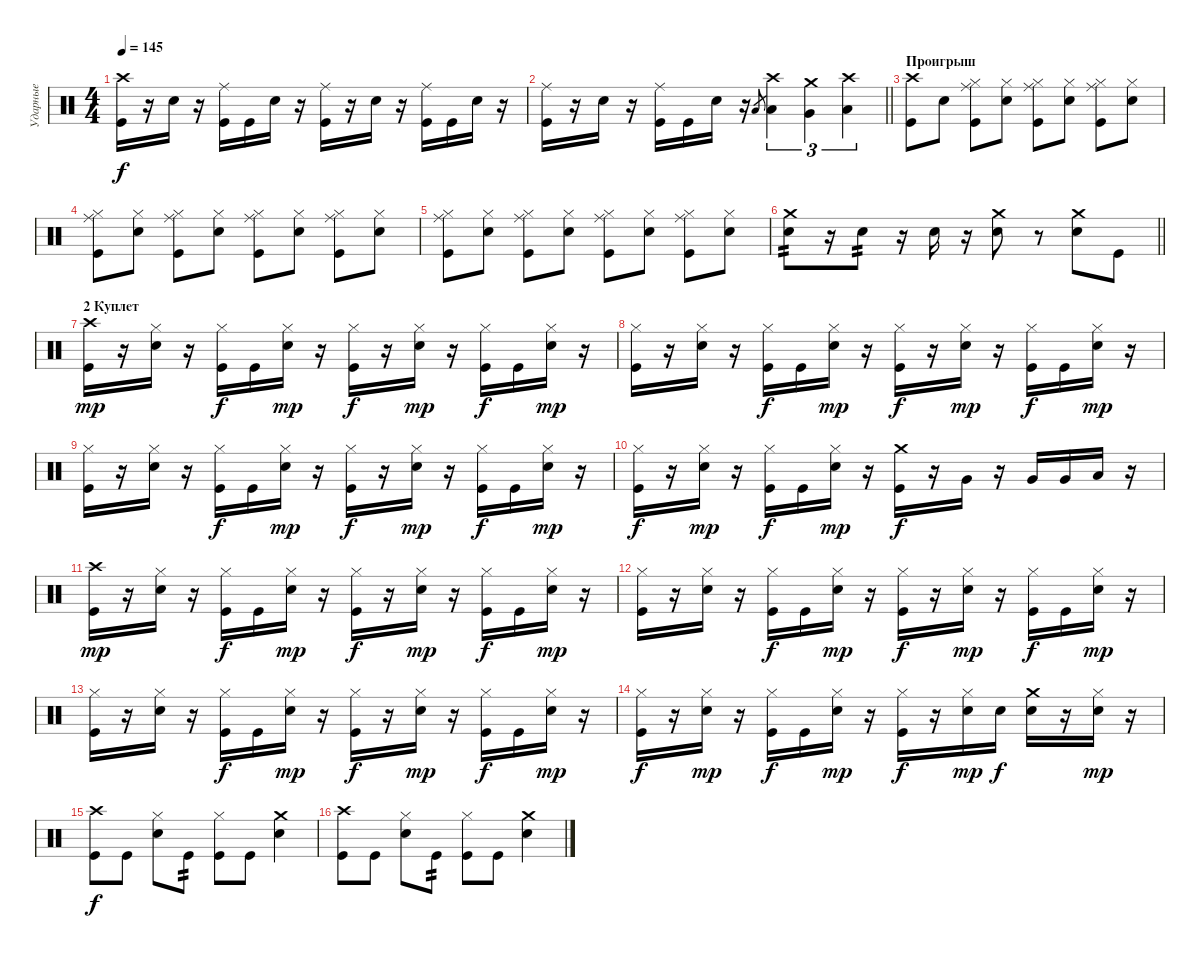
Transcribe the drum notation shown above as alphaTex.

\track ("Ударные" "Ударные") {instrument percussion}
\staff {score}
\articulation defaults
\ts (4 4)
\tempo 145
\clef neutral
\ks c
("Crash high (hit)" "Kick (hit)").16{dy f} r.16 "Snare (hit) 2".16 r.16 ("Ride (middle)" "Kick (hit)").16 "Kick (hit)".16 "Snare (hit) 2".16 r.16 ("Ride (middle)" "Kick (hit)").16 r.16 "Snare (hit) 2".16 r.16 ("Ride (middle)" "Kick (hit)").16 "Kick (hit)".16 "Snare (hit) 2".16 r.16 |
\barLineRight lightlight
("Ride (middle)" "Kick (hit)").16 r.16 "Snare (hit) 2".16 r.16 ("Ride (middle)" "Kick (hit)").16 "Kick (hit)".16 "Snare (hit) 2".16 r.16 "Low Tom (hit)".8{gr} ("Crash high (hit)" "Low Tom (hit)").4{tu (3 2)} ("Crash medium (hit)" "Very Low Tom (hit)").4{tu (3 2)} ("Crash high (hit)" "Low Floor Tom (hit)").4{tu (3 2)} |
\section ("" "Проигрыш")
("Crash high (hit)" "Kick (hit)").8 "Snare (hit) 2".8 ("Hi-Hat (closed)" "Ride (middle)" "Kick (hit)").8 ("Hi-Hat (closed)" "Snare (hit) 2").8 ("Hi-Hat (closed)" "Ride (middle)" "Kick (hit)").8 ("Hi-Hat (closed)" "Snare (hit) 2").8 ("Hi-Hat (closed)" "Ride (middle)" "Kick (hit)").8 ("Hi-Hat (closed)" "Snare (hit) 2").8 |
("Hi-Hat (closed)" "Ride (middle)" "Kick (hit)").8 ("Hi-Hat (closed)" "Snare (hit) 2").8 ("Hi-Hat (closed)" "Ride (middle)" "Kick (hit)").8 ("Hi-Hat (closed)" "Snare (hit) 2").8 ("Hi-Hat (closed)" "Ride (middle)" "Kick (hit)").8 ("Hi-Hat (closed)" "Snare (hit) 2").8 ("Hi-Hat (closed)" "Ride (middle)" "Kick (hit)").8 ("Hi-Hat (closed)" "Snare (hit) 2").8 |
("Hi-Hat (closed)" "Ride (middle)" "Kick (hit)").8 ("Hi-Hat (closed)" "Snare (hit) 2").8 ("Hi-Hat (closed)" "Ride (middle)" "Kick (hit)").8 ("Hi-Hat (closed)" "Snare (hit) 2").8 ("Hi-Hat (closed)" "Ride (middle)" "Kick (hit)").8 ("Hi-Hat (closed)" "Snare (hit) 2").8 ("Hi-Hat (closed)" "Ride (middle)" "Kick (hit)").8 ("Hi-Hat (closed)" "Snare (hit) 2").8 |
\barLineRight lightlight
("Crash medium (hit)" "Snare (hit) 2").8{tp 2} r.16 "Snare (hit) 2".8{tp 2} r.16 "Snare (hit) 2".16 r.16 ("Crash medium (hit)" "Snare (hit) 2").8 r.8 ("Crash medium (hit)" "Snare (hit) 2").8 "Kick (hit)".8 |
\section ("" "2 Куплет")
("Crash high (hit)" "Kick (hit)").16{dy mp} r.16 ("Hi-Hat (closed)" "Snare (hit) 2").16 r.16 ("Hi-Hat (closed)" "Kick (hit)").16{dy f} "Kick (hit)".16 ("Hi-Hat (closed)" "Snare (hit) 2").16{dy mp} r.16 ("Hi-Hat (closed)" "Kick (hit)").16{dy f} r.16 ("Hi-Hat (closed)" "Snare (hit) 2").16{dy mp} r.16 ("Hi-Hat (closed)" "Kick (hit)").16{dy f} "Kick (hit)".16 ("Hi-Hat (closed)" "Snare (hit) 2").16{dy mp} r.16 |
("Hi-Hat (closed)" "Kick (hit)").16 r.16 ("Hi-Hat (closed)" "Snare (hit) 2").16 r.16 ("Hi-Hat (closed)" "Kick (hit)").16{dy f} "Kick (hit)".16 ("Hi-Hat (closed)" "Snare (hit) 2").16{dy mp} r.16 ("Hi-Hat (closed)" "Kick (hit)").16{dy f} r.16 ("Hi-Hat (closed)" "Snare (hit) 2").16{dy mp} r.16 ("Hi-Hat (closed)" "Kick (hit)").16{dy f} "Kick (hit)".16 ("Hi-Hat (closed)" "Snare (hit) 2").16{dy mp} r.16 |
("Hi-Hat (closed)" "Kick (hit)").16 r.16 ("Hi-Hat (closed)" "Snare (hit) 2").16 r.16 ("Hi-Hat (closed)" "Kick (hit)").16{dy f} "Kick (hit)".16 ("Hi-Hat (closed)" "Snare (hit) 2").16{dy mp} r.16 ("Hi-Hat (closed)" "Kick (hit)").16{dy f} r.16 ("Hi-Hat (closed)" "Snare (hit) 2").16{dy mp} r.16 ("Hi-Hat (closed)" "Kick (hit)").16{dy f} "Kick (hit)".16 ("Hi-Hat (closed)" "Snare (hit) 2").16{dy mp} r.16 |
("Hi-Hat (closed)" "Kick (hit)").16{dy f} r.16 ("Hi-Hat (closed)" "Snare (hit) 2").16{dy mp} r.16 ("Hi-Hat (closed)" "Kick (hit)").16{dy f} "Kick (hit)".16 ("Hi-Hat (closed)" "Snare (hit) 2").16{dy mp} r.16 ("Crash medium (hit)" "Kick (hit)").16{dy f} r.16 "Very Low Tom (hit)".16 r.16 "Very Low Tom (hit)".16 "Very Low Tom (hit)".16 "Low Floor Tom (hit)".16 r.16 |
("Crash high (hit)" "Kick (hit)").16{dy mp} r.16 ("Hi-Hat (closed)" "Snare (hit) 2").16 r.16 ("Hi-Hat (closed)" "Kick (hit)").16{dy f} "Kick (hit)".16 ("Hi-Hat (closed)" "Snare (hit) 2").16{dy mp} r.16 ("Hi-Hat (closed)" "Kick (hit)").16{dy f} r.16 ("Hi-Hat (closed)" "Snare (hit) 2").16{dy mp} r.16 ("Hi-Hat (closed)" "Kick (hit)").16{dy f} "Kick (hit)".16 ("Hi-Hat (closed)" "Snare (hit) 2").16{dy mp} r.16 |
("Hi-Hat (closed)" "Kick (hit)").16 r.16 ("Hi-Hat (closed)" "Snare (hit) 2").16 r.16 ("Hi-Hat (closed)" "Kick (hit)").16{dy f} "Kick (hit)".16 ("Hi-Hat (closed)" "Snare (hit) 2").16{dy mp} r.16 ("Hi-Hat (closed)" "Kick (hit)").16{dy f} r.16 ("Hi-Hat (closed)" "Snare (hit) 2").16{dy mp} r.16 ("Hi-Hat (closed)" "Kick (hit)").16{dy f} "Kick (hit)".16 ("Hi-Hat (closed)" "Snare (hit) 2").16{dy mp} r.16 |
("Hi-Hat (closed)" "Kick (hit)").16 r.16 ("Hi-Hat (closed)" "Snare (hit) 2").16 r.16 ("Hi-Hat (closed)" "Kick (hit)").16{dy f} "Kick (hit)".16 ("Hi-Hat (closed)" "Snare (hit) 2").16{dy mp} r.16 ("Hi-Hat (closed)" "Kick (hit)").16{dy f} r.16 ("Hi-Hat (closed)" "Snare (hit) 2").16{dy mp} r.16 ("Hi-Hat (closed)" "Kick (hit)").16{dy f} "Kick (hit)".16 ("Hi-Hat (closed)" "Snare (hit) 2").16{dy mp} r.16 |
("Hi-Hat (closed)" "Kick (hit)").16{dy f} r.16 ("Hi-Hat (closed)" "Snare (hit) 2").16{dy mp} r.16 ("Hi-Hat (closed)" "Kick (hit)").16{dy f} "Kick (hit)".16 ("Hi-Hat (closed)" "Snare (hit) 2").16{dy mp} r.16 ("Hi-Hat (closed)" "Kick (hit)").16{dy f} r.16 ("Hi-Hat (closed)" "Snare (hit) 2").16{dy mp} "Snare (hit) 2".16{dy f} ("Crash medium (hit)" "Snare (hit) 2").16 r.16 ("Hi-Hat (closed)" "Snare (hit) 2").16{dy mp} r.16 |
("Crash high (hit)" "Kick (hit)").8{dy f} "Kick (hit)".8 ("Hi-Hat (closed)" "Snare (hit) 2").8 "Kick (hit)".8{tp 2} ("Hi-Hat (closed)" "Kick (hit)").8 "Kick (hit)".8 ("Crash medium (hit)" "Snare (hit) 2").4 |
("Crash high (hit)" "Kick (hit)").8 "Kick (hit)".8 ("Hi-Hat (closed)" "Snare (hit) 2").8 "Kick (hit)".8{tp 2} ("Hi-Hat (closed)" "Kick (hit)").8 "Kick (hit)".8 ("Crash medium (hit)" "Snare (hit) 2").4
